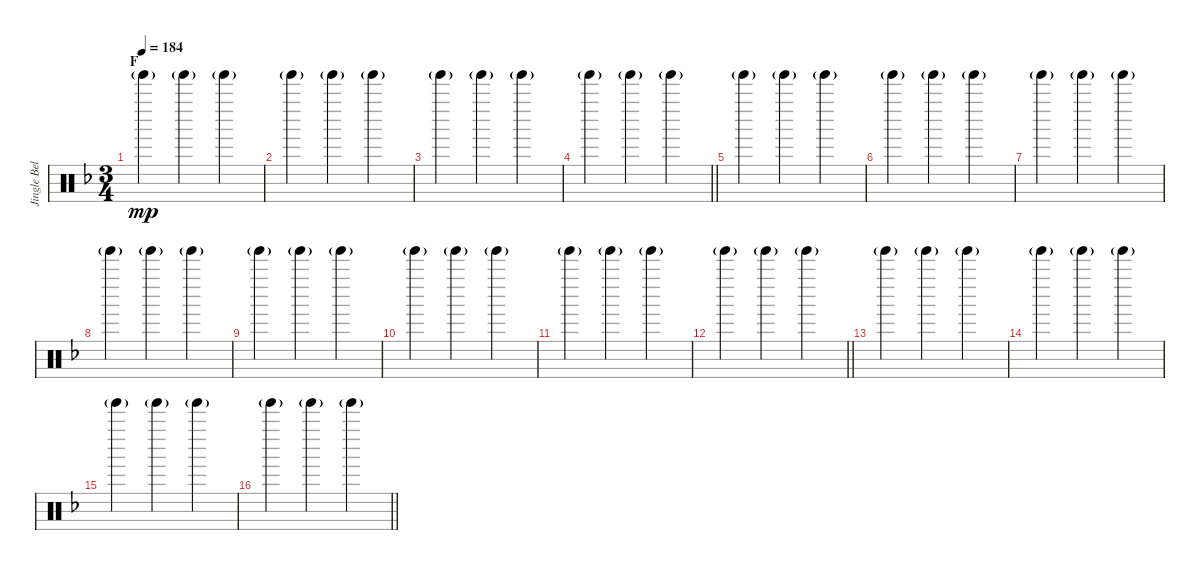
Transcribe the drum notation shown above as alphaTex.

\track ("Jingle Bells" "Jingle Bel") {instrument percussion}
\staff {score}
\articulation defaults
\ts (3 4)
\section ("" "F")
\tempo 184
\clef neutral
\ks f "Tinkle Bell (hit)"{g}.4{dy mp} "Tinkle Bell (hit)"{g}.4 "Tinkle Bell (hit)"{g}.4
|
"Tinkle Bell (hit)"{g}.4 "Tinkle Bell (hit)"{g}.4 "Tinkle Bell (hit)"{g}.4 |
"Tinkle Bell (hit)"{g}.4 "Tinkle Bell (hit)"{g}.4 "Tinkle Bell (hit)"{g}.4 |
\barLineRight lightlight "Tinkle Bell (hit)"{g}.4 "Tinkle Bell (hit)"{g}.4 "Tinkle Bell (hit)"{g}.4
|
"Tinkle Bell (hit)"{g}.4 "Tinkle Bell (hit)"{g}.4 "Tinkle Bell (hit)"{g}.4 |
"Tinkle Bell (hit)"{g}.4 "Tinkle Bell (hit)"{g}.4 "Tinkle Bell (hit)"{g}.4 |
"Tinkle Bell (hit)"{g}.4 "Tinkle Bell (hit)"{g}.4 "Tinkle Bell (hit)"{g}.4 |
"Tinkle Bell (hit)"{g}.4 "Tinkle Bell (hit)"{g}.4 "Tinkle Bell (hit)"{g}.4 |
"Tinkle Bell (hit)"{g}.4 "Tinkle Bell (hit)"{g}.4 "Tinkle Bell (hit)"{g}.4 |
"Tinkle Bell (hit)"{g}.4 "Tinkle Bell (hit)"{g}.4 "Tinkle Bell (hit)"{g}.4 |
"Tinkle Bell (hit)"{g}.4 "Tinkle Bell (hit)"{g}.4 "Tinkle Bell (hit)"{g}.4 |
\barLineRight lightlight "Tinkle Bell (hit)"{g}.4 "Tinkle Bell (hit)"{g}.4 "Tinkle Bell (hit)"{g}.4
|
"Tinkle Bell (hit)"{g}.4 "Tinkle Bell (hit)"{g}.4 "Tinkle Bell (hit)"{g}.4 |
"Tinkle Bell (hit)"{g}.4 "Tinkle Bell (hit)"{g}.4 "Tinkle Bell (hit)"{g}.4 |
"Tinkle Bell (hit)"{g}.4 "Tinkle Bell (hit)"{g}.4 "Tinkle Bell (hit)"{g}.4 |
\barLineRight lightlight "Tinkle Bell (hit)"{g}.4 "Tinkle Bell (hit)"{g}.4 "Tinkle Bell (hit)"{g}.4
